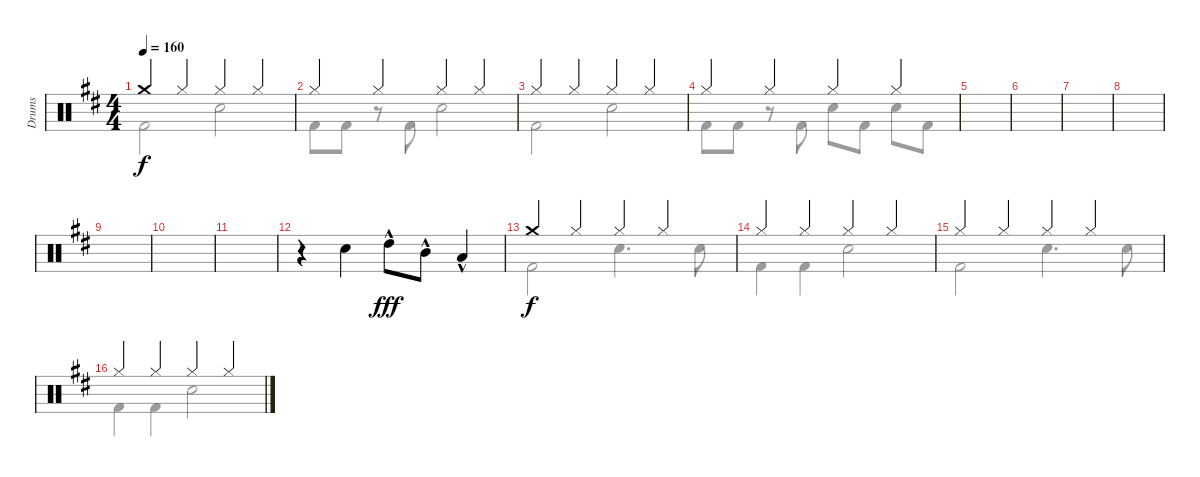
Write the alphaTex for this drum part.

\track ("Drums" "Drums") {instrument percussion}
\staff {score}
\articulation defaults
\voice
\ts (4 4)
\tempo 160
\clef neutral
\ks d "Crash medium (hit)".4{dy f} "Hi-Hat (closed)".4 "Hi-Hat (closed)".4 "Hi-Hat (closed)".4
|
"Hi-Hat (closed)".4 "Hi-Hat (closed)".4 "Hi-Hat (closed)".4 "Hi-Hat (closed)".4 |
"Hi-Hat (closed)".4 "Hi-Hat (closed)".4 "Hi-Hat (closed)".4 "Hi-Hat (closed)".4 |
"Hi-Hat (closed)".4 "Hi-Hat (closed)".4 "Hi-Hat (closed)".4 "Hi-Hat (closed)".4 |
|
|
|
|
|
|
|
r.4 "Snare (hit) 2".4 "High Tom (hit)"{hac}.8{dy fff} "Mid Tom (hit)"{hac}.8 "Low Tom (hit)"{hac}.4 |
"Crash medium (hit)".4{dy f} "Hi-Hat (closed)".4 "Hi-Hat (closed)".4 "Hi-Hat (closed)".4 |
"Hi-Hat (closed)".4 "Hi-Hat (closed)".4 "Hi-Hat (closed)".4 "Hi-Hat (closed)".4 |
"Hi-Hat (closed)".4 "Hi-Hat (closed)".4 "Hi-Hat (closed)".4 "Hi-Hat (closed)".4 |
"Hi-Hat (closed)".4 "Hi-Hat (closed)".4 "Hi-Hat (closed)".4 "Hi-Hat (closed)".4
\voice
\clef neutral
\ottava regular
\simile none
\ks d "Kick (hit) 2".2{dy f} "Snare (hit) 2".2
|
"Kick (hit) 2".8 "Kick (hit) 2".8 r.8 "Kick (hit) 2".8 "Snare (hit) 2".2 |
"Kick (hit) 2".2 "Snare (hit) 2".2 |
"Kick (hit) 2".8 "Kick (hit) 2".8 r.8 "Kick (hit) 2".8 "Snare (hit) 2".8 "Kick (hit) 2".8 "Snare (hit) 2".8 "Kick (hit) 2".8 |
|
|
|
|
|
|
|
|
"Kick (hit) 2".2 "Snare (hit) 2".4{d} "Snare (hit) 2".8 |
"Kick (hit) 2".4 "Kick (hit) 2".4 "Snare (hit) 2".2 |
"Kick (hit) 2".2 "Snare (hit) 2".4{d} "Snare (hit) 2".8 |
"Kick (hit) 2".4 "Kick (hit) 2".4 "Snare (hit) 2".2
